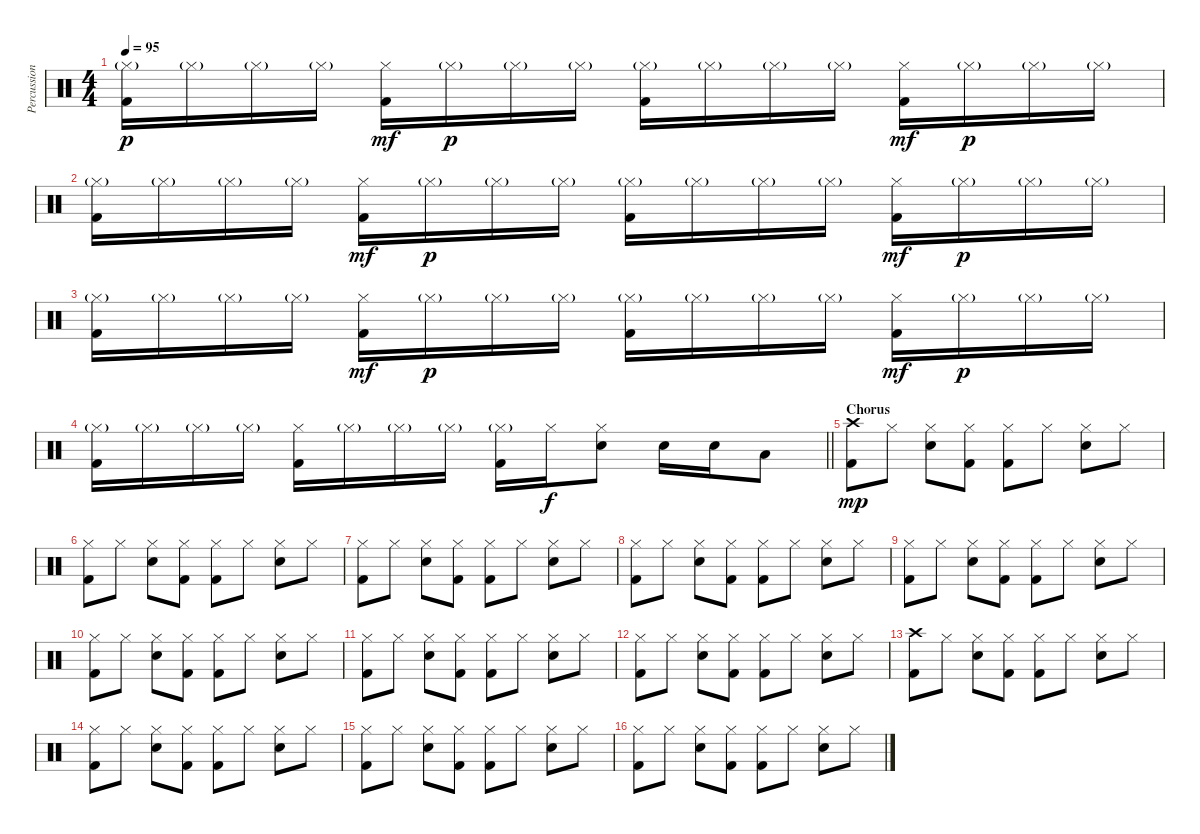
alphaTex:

\track ("Percussioni" "Percussion") {instrument percussion}
\staff {score}
\articulation defaults
\ts (4 4)
\tempo 95
\clef neutral
\ks c
("Hi-Hat (closed)"{g} "Kick (hit) 2").16{dy p} "Hi-Hat (closed)"{g}.16 "Hi-Hat (closed)"{g}.16 "Hi-Hat (closed)"{g}.16 ("Hi-Hat (closed)" "Kick (hit) 2").16{dy mf} "Hi-Hat (closed)"{g}.16{dy p} "Hi-Hat (closed)"{g}.16 "Hi-Hat (closed)"{g}.16 ("Hi-Hat (closed)"{g} "Kick (hit) 2").16 "Hi-Hat (closed)"{g}.16 "Hi-Hat (closed)"{g}.16 "Hi-Hat (closed)"{g}.16 ("Hi-Hat (closed)" "Kick (hit) 2").16{dy mf} "Hi-Hat (closed)"{g}.16{dy p} "Hi-Hat (closed)"{g}.16 "Hi-Hat (closed)"{g}.16 |
("Hi-Hat (closed)"{g} "Kick (hit) 2").16 "Hi-Hat (closed)"{g}.16 "Hi-Hat (closed)"{g}.16 "Hi-Hat (closed)"{g}.16 ("Hi-Hat (closed)" "Kick (hit) 2").16{dy mf} "Hi-Hat (closed)"{g}.16{dy p} "Hi-Hat (closed)"{g}.16 "Hi-Hat (closed)"{g}.16 ("Hi-Hat (closed)"{g} "Kick (hit) 2").16 "Hi-Hat (closed)"{g}.16 "Hi-Hat (closed)"{g}.16 "Hi-Hat (closed)"{g}.16 ("Hi-Hat (closed)" "Kick (hit) 2").16{dy mf} "Hi-Hat (closed)"{g}.16{dy p} "Hi-Hat (closed)"{g}.16 "Hi-Hat (closed)"{g}.16 |
("Hi-Hat (closed)"{g} "Kick (hit) 2").16 "Hi-Hat (closed)"{g}.16 "Hi-Hat (closed)"{g}.16 "Hi-Hat (closed)"{g}.16 ("Hi-Hat (closed)" "Kick (hit) 2").16{dy mf} "Hi-Hat (closed)"{g}.16{dy p} "Hi-Hat (closed)"{g}.16 "Hi-Hat (closed)"{g}.16 ("Hi-Hat (closed)"{g} "Kick (hit) 2").16 "Hi-Hat (closed)"{g}.16 "Hi-Hat (closed)"{g}.16 "Hi-Hat (closed)"{g}.16 ("Hi-Hat (closed)" "Kick (hit) 2").16{dy mf} "Hi-Hat (closed)"{g}.16{dy p} "Hi-Hat (closed)"{g}.16 "Hi-Hat (closed)"{g}.16 |
\barLineRight lightlight
("Hi-Hat (closed)"{g} "Kick (hit) 2").16 "Hi-Hat (closed)"{g}.16 "Hi-Hat (closed)"{g}.16 "Hi-Hat (closed)"{g}.16 ("Hi-Hat (closed)" "Kick (hit) 2").16 "Hi-Hat (closed)"{g}.16 "Hi-Hat (closed)"{g}.16 "Hi-Hat (closed)"{g}.16 ("Hi-Hat (closed)"{g} "Kick (hit) 2").16 "Hi-Hat (closed)".16{dy f} ("Hi-Hat (closed)" "Snare (hit) 2").8 "Snare (hit) 2".16 "Snare (hit) 2".16 "Low Tom (hit)".8 |
\section ("" "Chorus")
("Crash high (hit)" "Kick (hit) 2").8{dy mp} "Hi-Hat (closed)".8 ("Hi-Hat (closed)" "Snare (hit) 2").8 ("Hi-Hat (closed)" "Kick (hit) 2").8 ("Hi-Hat (closed)" "Kick (hit) 2").8 "Hi-Hat (closed)".8 ("Hi-Hat (closed)" "Snare (hit) 2").8 "Hi-Hat (closed)".8 |
("Hi-Hat (closed)" "Kick (hit) 2").8 "Hi-Hat (closed)".8 ("Hi-Hat (closed)" "Snare (hit) 2").8 ("Hi-Hat (closed)" "Kick (hit) 2").8 ("Hi-Hat (closed)" "Kick (hit) 2").8 "Hi-Hat (closed)".8 ("Hi-Hat (closed)" "Snare (hit) 2").8 "Hi-Hat (closed)".8 |
("Hi-Hat (closed)" "Kick (hit) 2").8 "Hi-Hat (closed)".8 ("Hi-Hat (closed)" "Snare (hit) 2").8 ("Hi-Hat (closed)" "Kick (hit) 2").8 ("Hi-Hat (closed)" "Kick (hit) 2").8 "Hi-Hat (closed)".8 ("Hi-Hat (closed)" "Snare (hit) 2").8 "Hi-Hat (closed)".8 |
("Hi-Hat (closed)" "Kick (hit) 2").8 "Hi-Hat (closed)".8 ("Hi-Hat (closed)" "Snare (hit) 2").8 ("Hi-Hat (closed)" "Kick (hit) 2").8 ("Hi-Hat (closed)" "Kick (hit) 2").8 "Hi-Hat (closed)".8 ("Hi-Hat (closed)" "Snare (hit) 2").8 "Hi-Hat (closed)".8 |
("Hi-Hat (closed)" "Kick (hit) 2").8 "Hi-Hat (closed)".8 ("Hi-Hat (closed)" "Snare (hit) 2").8 ("Hi-Hat (closed)" "Kick (hit) 2").8 ("Hi-Hat (closed)" "Kick (hit) 2").8 "Hi-Hat (closed)".8 ("Hi-Hat (closed)" "Snare (hit) 2").8 "Hi-Hat (closed)".8 |
("Hi-Hat (closed)" "Kick (hit) 2").8 "Hi-Hat (closed)".8 ("Hi-Hat (closed)" "Snare (hit) 2").8 ("Hi-Hat (closed)" "Kick (hit) 2").8 ("Hi-Hat (closed)" "Kick (hit) 2").8 "Hi-Hat (closed)".8 ("Hi-Hat (closed)" "Snare (hit) 2").8 "Hi-Hat (closed)".8 |
("Hi-Hat (closed)" "Kick (hit) 2").8 "Hi-Hat (closed)".8 ("Hi-Hat (closed)" "Snare (hit) 2").8 ("Hi-Hat (closed)" "Kick (hit) 2").8 ("Hi-Hat (closed)" "Kick (hit) 2").8 "Hi-Hat (closed)".8 ("Hi-Hat (closed)" "Snare (hit) 2").8 "Hi-Hat (closed)".8 |
("Hi-Hat (closed)" "Kick (hit) 2").8 "Hi-Hat (closed)".8 ("Hi-Hat (closed)" "Snare (hit) 2").8 ("Hi-Hat (closed)" "Kick (hit) 2").8 ("Hi-Hat (closed)" "Kick (hit) 2").8 "Hi-Hat (closed)".8 ("Hi-Hat (closed)" "Snare (hit) 2").8 "Hi-Hat (closed)".8 |
("Crash high (hit)" "Kick (hit) 2").8 "Hi-Hat (closed)".8 ("Hi-Hat (closed)" "Snare (hit) 2").8 ("Hi-Hat (closed)" "Kick (hit) 2").8 ("Hi-Hat (closed)" "Kick (hit) 2").8 "Hi-Hat (closed)".8 ("Hi-Hat (closed)" "Snare (hit) 2").8 "Hi-Hat (closed)".8 |
("Hi-Hat (closed)" "Kick (hit) 2").8 "Hi-Hat (closed)".8 ("Hi-Hat (closed)" "Snare (hit) 2").8 ("Hi-Hat (closed)" "Kick (hit) 2").8 ("Hi-Hat (closed)" "Kick (hit) 2").8 "Hi-Hat (closed)".8 ("Hi-Hat (closed)" "Snare (hit) 2").8 "Hi-Hat (closed)".8 |
("Hi-Hat (closed)" "Kick (hit) 2").8 "Hi-Hat (closed)".8 ("Hi-Hat (closed)" "Snare (hit) 2").8 ("Hi-Hat (closed)" "Kick (hit) 2").8 ("Hi-Hat (closed)" "Kick (hit) 2").8 "Hi-Hat (closed)".8 ("Hi-Hat (closed)" "Snare (hit) 2").8 "Hi-Hat (closed)".8 |
("Hi-Hat (closed)" "Kick (hit) 2").8 "Hi-Hat (closed)".8 ("Hi-Hat (closed)" "Snare (hit) 2").8 ("Hi-Hat (closed)" "Kick (hit) 2").8 ("Hi-Hat (closed)" "Kick (hit) 2").8 "Hi-Hat (closed)".8 ("Hi-Hat (closed)" "Snare (hit) 2").8 "Hi-Hat (closed)".8
